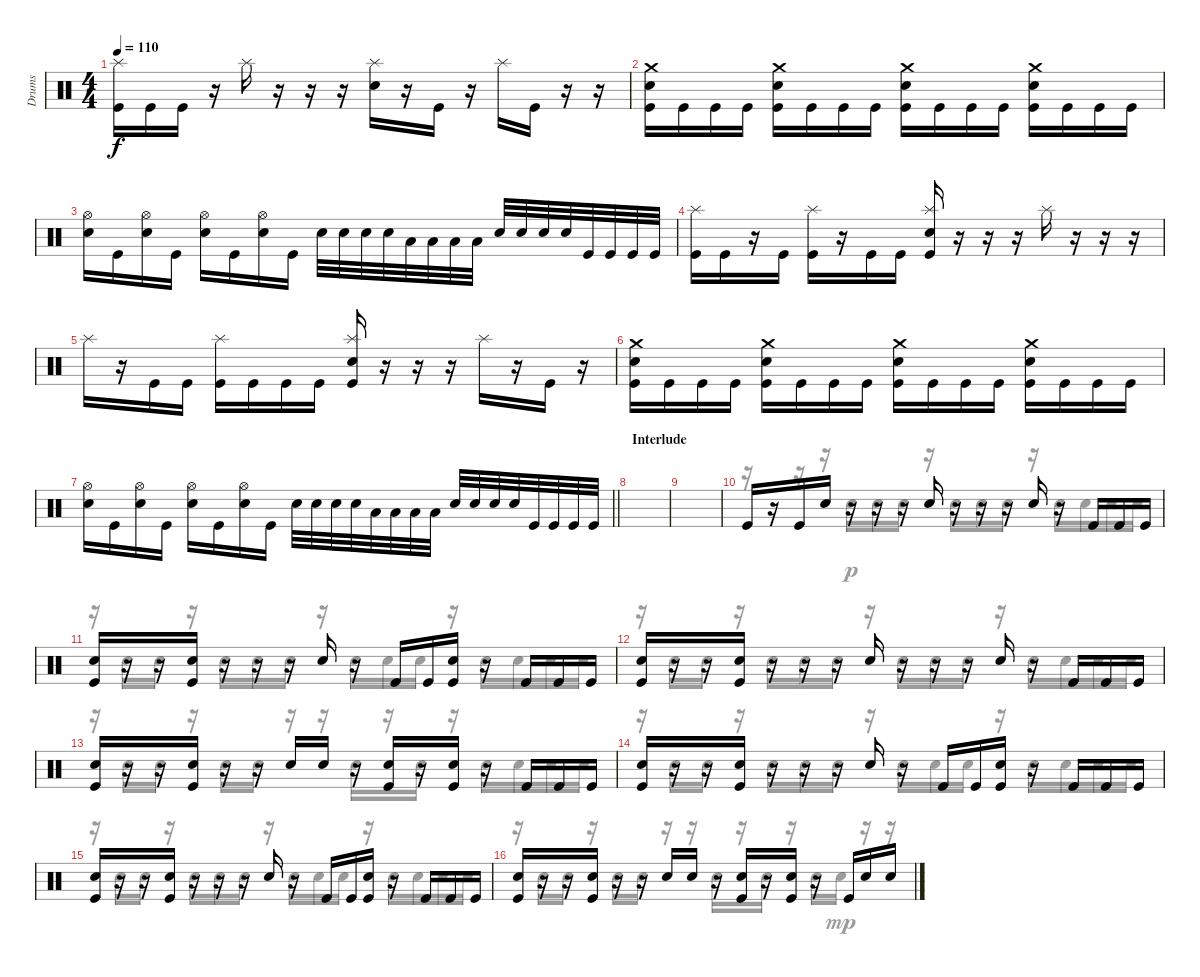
\track ("Drums" "Drums") {instrument percussion}
\staff {score}
\articulation defaults
\voice
\ts (4 4)
\tempo 110
\clef neutral
\ks c
("Kick (hit)" "Splash (hit)").16{dy f} "Kick (hit)".16 "Kick (hit)".16 r.16 "Splash (hit)".16 r.16 r.16 r.16 ("Splash (hit)" "Snare (hit) 2").16 r.16 "Kick (hit)".16 r.16 "Splash (hit)".16 "Kick (hit)".16 r.16 r.16 |
("Kick (hit)" "Crash medium (hit)" "Snare (hit) 2").16 "Kick (hit)".16 "Kick (hit)".16 "Kick (hit)".16 ("Kick (hit)" "Crash medium (hit)" "Snare (hit) 2").16 "Kick (hit)".16 "Kick (hit)".16 "Kick (hit)".16 ("Kick (hit)" "Crash medium (hit)" "Snare (hit) 2").16 "Kick (hit)".16 "Kick (hit)".16 "Kick (hit)".16 ("Kick (hit)" "Crash medium (hit)" "Snare (hit) 2").16 "Kick (hit)".16 "Kick (hit)".16 "Kick (hit)".16 |
("Snare (hit) 2" "Hi-Hat (open)").16 "Kick (hit)".16 ("Snare (hit) 2" "Hi-Hat (open)").16 "Kick (hit)".16 ("Snare (hit) 2" "Hi-Hat (open)").16 "Kick (hit)".16 ("Snare (hit) 2" "Hi-Hat (open)").16 "Kick (hit)".16 "Snare (hit) 2".32 "Snare (hit) 2".32 "Snare (hit) 2".32 "Snare (hit) 2".32 "Low Tom (hit)".32 "Low Tom (hit)".32 "Low Floor Tom (hit)".32 "Low Floor Tom (hit)".32 "Snare (hit) 2".32 "Snare (hit) 2".32 "Snare (hit) 2".32 "Snare (hit) 2".32 "Kick (hit)".32 "Kick (hit)".32 "Kick (hit)".32 "Kick (hit)".32 |
("Kick (hit)" "Splash (hit)").16 "Kick (hit)".16 r.16 "Kick (hit)".16 ("Kick (hit)" "Splash (hit)").16 r.16 "Kick (hit)".16 "Kick (hit)".16 ("Kick (hit)" "Splash (hit)" "Snare (hit) 2").16 r.16 r.16 r.16 "Splash (hit)".16 r.16 r.16 r.16 |
"Splash (hit)".16 r.16 "Kick (hit)".16 "Kick (hit)".16 ("Kick (hit)" "Splash (hit)").16 "Kick (hit)".16 "Kick (hit)".16 "Kick (hit)".16 ("Kick (hit)" "Splash (hit)" "Snare (hit) 2").16 r.16 r.16 r.16 "Splash (hit)".16 r.16 "Kick (hit)".16 r.16 |
("Kick (hit)" "Crash medium (hit)" "Snare (hit) 2").16 "Kick (hit)".16 "Kick (hit)".16 "Kick (hit)".16 ("Kick (hit)" "Crash medium (hit)" "Snare (hit) 2").16 "Kick (hit)".16 "Kick (hit)".16 "Kick (hit)".16 ("Kick (hit)" "Crash medium (hit)" "Snare (hit) 2").16 "Kick (hit)".16 "Kick (hit)".16 "Kick (hit)".16 ("Kick (hit)" "Crash medium (hit)" "Snare (hit) 2").16 "Kick (hit)".16 "Kick (hit)".16 "Kick (hit)".16 |
\barLineRight lightlight
("Snare (hit) 2" "Hi-Hat (open)").16 "Kick (hit)".16 ("Snare (hit) 2" "Hi-Hat (open)").16 "Kick (hit)".16 ("Snare (hit) 2" "Hi-Hat (open)").16 "Kick (hit)".16 ("Snare (hit) 2" "Hi-Hat (open)").16 "Kick (hit)".16 "Snare (hit) 2".32 "Snare (hit) 2".32 "Snare (hit) 2".32 "Snare (hit) 2".32 "Low Tom (hit)".32 "Low Tom (hit)".32 "Low Floor Tom (hit)".32 "Low Floor Tom (hit)".32 "Snare (hit) 2".32 "Snare (hit) 2".32 "Snare (hit) 2".32 "Snare (hit) 2".32 "Kick (hit)".32 "Kick (hit)".32 "Kick (hit)".32 "Kick (hit)".32 |
\section ("" "Interlude")
|
|
"Kick (hit)".16 r.16 "Kick (hit)".16 "Snare (hit) 2".16 r.16 r.16 r.16 "Snare (hit) 2".16 r.16 r.16 r.16 "Snare (hit) 2".16 r.16 "Kick (hit)".16 "Kick (hit)".16 "Kick (hit)".16 |
("Kick (hit)" "Snare (hit) 2").16 r.16 r.16 ("Snare (hit) 2" "Kick (hit)").16 r.16 r.16 r.16 "Snare (hit) 2".16 r.16 "Kick (hit)".16 "Kick (hit)".16 ("Kick (hit)" "Snare (hit) 2").16 r.16 "Kick (hit)".16 "Kick (hit)".16 "Kick (hit)".16 |
("Kick (hit)" "Snare (hit) 2").16 r.16 r.16 ("Snare (hit) 2" "Kick (hit)").16 r.16 r.16 r.16 "Snare (hit) 2".16 r.16 r.16 r.16 "Snare (hit) 2".16 r.16 "Kick (hit)".16 "Kick (hit)".16 "Kick (hit)".16 |
("Snare (hit) 2" "Kick (hit)").16 r.16 r.16 ("Snare (hit) 2" "Kick (hit)").16 r.16 r.16 "Snare (hit) 2".16 "Snare (hit) 2".16 r.16 ("Snare (hit) 2" "Kick (hit)").16 r.16 ("Kick (hit)" "Snare (hit) 2").16 r.16 "Kick (hit)".16 "Kick (hit)".16 "Kick (hit)".16 |
("Kick (hit)" "Snare (hit) 2").16 r.16 r.16 ("Snare (hit) 2" "Kick (hit)").16 r.16 r.16 r.16 "Snare (hit) 2".16 r.16 "Kick (hit)".16 "Kick (hit)".16 ("Kick (hit)" "Snare (hit) 2").16 r.16 "Kick (hit)".16 "Kick (hit)".16 "Kick (hit)".16 |
("Kick (hit)" "Snare (hit) 2").16 r.16 r.16 ("Snare (hit) 2" "Kick (hit)").16 r.16 r.16 r.16 "Snare (hit) 2".16 r.16 "Kick (hit)".16 "Kick (hit)".16 ("Kick (hit)" "Snare (hit) 2").16 r.16 "Kick (hit)".16 "Kick (hit)".16 "Kick (hit)".16 |
("Snare (hit) 2" "Kick (hit)").16 r.16 r.16 ("Snare (hit) 2" "Kick (hit)").16 r.16 r.16 "Snare (hit) 2".16 "Snare (hit) 2".16 r.16 ("Snare (hit) 2" "Kick (hit)").16 r.16 ("Kick (hit)" "Snare (hit) 2").16 r.16 "Kick (hit)".16 "Snare (hit) 2".16 "Snare (hit) 2".16
\voice
\clef neutral
\ottava regular
\simile none
\ks c
|
|
|
|
|
|
\barLineRight lightlight
|
|
|
r.16 r.16 r.16 r.16 "Snare (hit) 2".16{dy p} "Snare (hit) 2".16 "Snare (hit) 2".16 r.16 "Snare (hit) 2".16 "Snare (hit) 2".16 "Snare (hit) 2".16 r.16 "Snare (hit) 2".16 "Snare (hit) 2".16 "Snare (hit) 2".16 "Snare (hit) 2".16 |
r.16 "Snare (hit) 2".16 "Snare (hit) 2".16 r.16 "Snare (hit) 2".16 "Snare (hit) 2".16 "Snare (hit) 2".16 r.16 "Snare (hit) 2".16 "Snare (hit) 2".16 "Snare (hit) 2".16 r.16 "Snare (hit) 2".16 "Snare (hit) 2".16 "Snare (hit) 2".16 "Snare (hit) 2".16 |
r.16 "Snare (hit) 2".16 "Snare (hit) 2".16 r.16 "Snare (hit) 2".16 "Snare (hit) 2".16 "Snare (hit) 2".16 r.16 "Snare (hit) 2".16 "Snare (hit) 2".16 "Snare (hit) 2".16 r.16 "Snare (hit) 2".16 "Snare (hit) 2".16 "Snare (hit) 2".16 "Snare (hit) 2".16 |
r.16 "Snare (hit) 2".16 "Snare (hit) 2".16 r.16 "Snare (hit) 2".16 "Snare (hit) 2".16 r.16 r.16 "Snare (hit) 2".16 r.16 "Snare (hit) 2".16 r.16 "Snare (hit) 2".16 "Snare (hit) 2".16 "Snare (hit) 2".16 "Snare (hit) 2".16 |
r.16 "Snare (hit) 2".16 "Snare (hit) 2".16 r.16 "Snare (hit) 2".16 "Snare (hit) 2".16 "Snare (hit) 2".16 r.16 "Snare (hit) 2".16 "Snare (hit) 2".16 "Snare (hit) 2".16 r.16 "Snare (hit) 2".16 "Snare (hit) 2".16 "Snare (hit) 2".16 "Snare (hit) 2".16 |
r.16 "Snare (hit) 2".16 "Snare (hit) 2".16 r.16 "Snare (hit) 2".16 "Snare (hit) 2".16 "Snare (hit) 2".16 r.16 "Snare (hit) 2".16 "Snare (hit) 2".16 "Snare (hit) 2".16 r.16 "Snare (hit) 2".16 "Snare (hit) 2".16 "Snare (hit) 2".16 "Snare (hit) 2".16 |
r.16 "Snare (hit) 2".16 "Snare (hit) 2".16 r.16 "Snare (hit) 2".16 "Snare (hit) 2".16 r.16 r.16 "Snare (hit) 2".16 r.16 "Snare (hit) 2".16 r.16 "Snare (hit) 2".16 "Snare (hit) 2".16{dy mp} r.16 r.16
